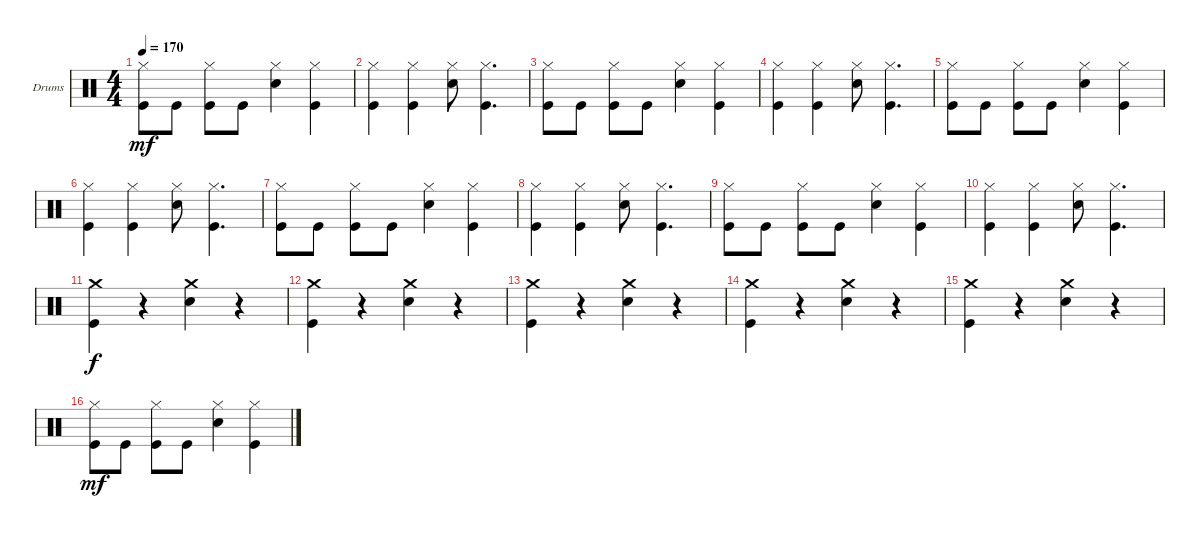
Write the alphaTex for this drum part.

\defaultSystemsLayout 4
\bracketExtendMode groupsimilarinstruments
\firstSystemTrackNameOrientation horizontal
\otherSystemsTrackNameOrientation horizontal
\track ("Drumkit" "Drums") {instrument percussion}
\staff {score}
\articulation defaults
\ts (4 4)
\tempo 170
\clef neutral
\scale
0.333333
\ks c
("Kick (hit)" "Hi-Hat (closed)").8{dy mf} "Kick (hit)".8 ("Kick (hit)" "Hi-Hat (closed)").8 "Kick (hit)".8 ("Snare (hit) 2" "Hi-Hat (closed)").4 ("Kick (hit)" "Hi-Hat (closed)").4 |
\scale
0.333333 ("Kick (hit)" "Hi-Hat (closed)").4 ("Kick (hit)" "Hi-Hat (closed)").4 ("Snare (hit) 2" "Hi-Hat (closed)").8 ("Kick (hit)" "Hi-Hat (closed)").4{d} |
\scale
0.333333 ("Kick (hit)" "Hi-Hat (closed)").8 "Kick (hit)".8 ("Kick (hit)" "Hi-Hat (closed)").8 "Kick (hit)".8 ("Snare (hit) 2" "Hi-Hat (closed)").4 ("Kick (hit)" "Hi-Hat (closed)").4 |
\scale
0.333333 ("Kick (hit)" "Hi-Hat (closed)").4 ("Kick (hit)" "Hi-Hat (closed)").4 ("Snare (hit) 2" "Hi-Hat (closed)").8 ("Kick (hit)" "Hi-Hat (closed)").4{d} |
\scale
0.333333 ("Kick (hit)" "Hi-Hat (closed)").8 "Kick (hit)".8 ("Kick (hit)" "Hi-Hat (closed)").8 "Kick (hit)".8 ("Snare (hit) 2" "Hi-Hat (closed)").4 ("Kick (hit)" "Hi-Hat (closed)").4 |
\scale
0.333333 ("Kick (hit)" "Hi-Hat (closed)").4 ("Kick (hit)" "Hi-Hat (closed)").4 ("Snare (hit) 2" "Hi-Hat (closed)").8 ("Kick (hit)" "Hi-Hat (closed)").4{d} |
\scale
0.333333 ("Kick (hit)" "Hi-Hat (closed)").8 "Kick (hit)".8 ("Kick (hit)" "Hi-Hat (closed)").8 "Kick (hit)".8 ("Snare (hit) 2" "Hi-Hat (closed)").4 ("Kick (hit)" "Hi-Hat (closed)").4 |
\scale
0.333333 ("Kick (hit)" "Hi-Hat (closed)").4 ("Kick (hit)" "Hi-Hat (closed)").4 ("Snare (hit) 2" "Hi-Hat (closed)").8 ("Kick (hit)" "Hi-Hat (closed)").4{d} |
\scale
0.333333 ("Kick (hit)" "Hi-Hat (closed)").8 "Kick (hit)".8 ("Kick (hit)" "Hi-Hat (closed)").8 "Kick (hit)".8 ("Snare (hit) 2" "Hi-Hat (closed)").4 ("Kick (hit)" "Hi-Hat (closed)").4 |
\scale
0.333333 ("Kick (hit)" "Hi-Hat (closed)").4 ("Kick (hit)" "Hi-Hat (closed)").4 ("Snare (hit) 2" "Hi-Hat (closed)").8 ("Kick (hit)" "Hi-Hat (closed)").4{d} |
\scale
0.333333 ("Crash medium (hit)" "Kick (hit)").4{dy f} r.4 ("Crash medium (hit)" "Snare (hit) 2").4 r.4 |
\scale
0.333333 ("Crash medium (hit)" "Kick (hit)").4 r.4 ("Crash medium (hit)" "Snare (hit) 2").4 r.4 |
\scale
0.333333 ("Crash medium (hit)" "Kick (hit)").4 r.4 ("Crash medium (hit)" "Snare (hit) 2").4 r.4 |
\scale
0.333333 ("Crash medium (hit)" "Kick (hit)").4 r.4 ("Crash medium (hit)" "Snare (hit) 2").4 r.4 |
\scale
0.333333 ("Crash medium (hit)" "Kick (hit)").4 r.4 ("Crash medium (hit)" "Snare (hit) 2").4 r.4 |
\scale
0.333333 ("Kick (hit)" "Hi-Hat (closed)").8{dy mf} "Kick (hit)".8 ("Kick (hit)" "Hi-Hat (closed)").8 "Kick (hit)".8 ("Snare (hit) 2" "Hi-Hat (closed)").4 ("Kick (hit)" "Hi-Hat (closed)").4
